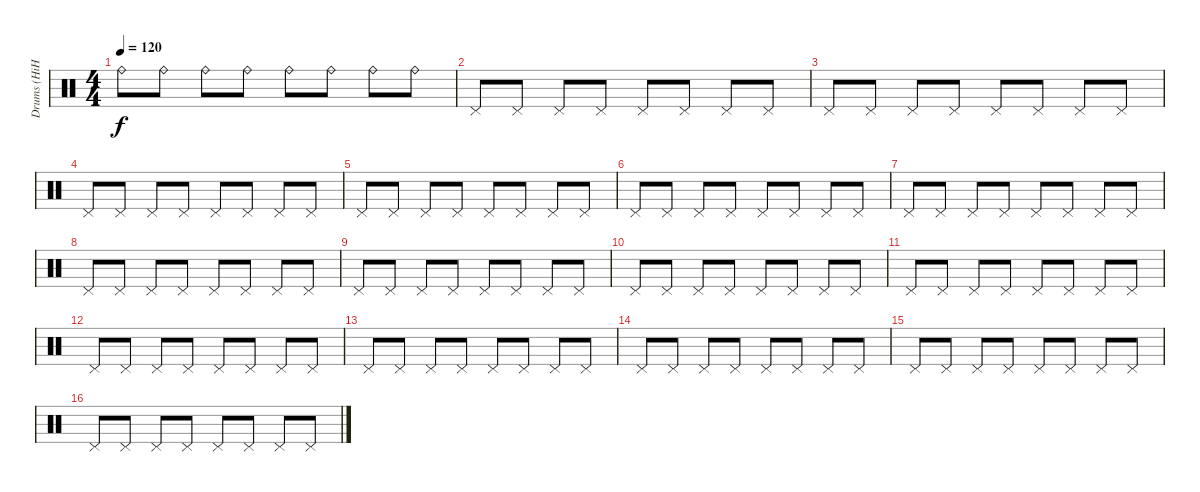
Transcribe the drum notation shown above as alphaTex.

\track ("Drums (HiHat)" "Drums (HiH") {instrument percussion}
\staff {score}
\articulation defaults
\ts (4 4)
\tempo 120
\clef neutral
\ks c "Ride (bell)".8{dy f} "Ride (bell)".8 "Ride (bell)".8 "Ride (bell)".8 "Ride (bell)".8 "Ride (bell)".8 "Ride (bell)".8 "Ride (bell)".8
|
"Pedal Hi-Hat (hit)".8 "Pedal Hi-Hat (hit)".8 "Pedal Hi-Hat (hit)".8 "Pedal Hi-Hat (hit)".8 "Pedal Hi-Hat (hit)".8 "Pedal Hi-Hat (hit)".8 "Pedal Hi-Hat (hit)".8 "Pedal Hi-Hat (hit)".8 |
"Pedal Hi-Hat (hit)".8 "Pedal Hi-Hat (hit)".8 "Pedal Hi-Hat (hit)".8 "Pedal Hi-Hat (hit)".8 "Pedal Hi-Hat (hit)".8 "Pedal Hi-Hat (hit)".8 "Pedal Hi-Hat (hit)".8 "Pedal Hi-Hat (hit)".8 |
"Pedal Hi-Hat (hit)".8 "Pedal Hi-Hat (hit)".8 "Pedal Hi-Hat (hit)".8 "Pedal Hi-Hat (hit)".8 "Pedal Hi-Hat (hit)".8 "Pedal Hi-Hat (hit)".8 "Pedal Hi-Hat (hit)".8 "Pedal Hi-Hat (hit)".8 |
"Pedal Hi-Hat (hit)".8 "Pedal Hi-Hat (hit)".8 "Pedal Hi-Hat (hit)".8 "Pedal Hi-Hat (hit)".8 "Pedal Hi-Hat (hit)".8 "Pedal Hi-Hat (hit)".8 "Pedal Hi-Hat (hit)".8 "Pedal Hi-Hat (hit)".8 |
"Pedal Hi-Hat (hit)".8 "Pedal Hi-Hat (hit)".8 "Pedal Hi-Hat (hit)".8 "Pedal Hi-Hat (hit)".8 "Pedal Hi-Hat (hit)".8 "Pedal Hi-Hat (hit)".8 "Pedal Hi-Hat (hit)".8 "Pedal Hi-Hat (hit)".8 |
"Pedal Hi-Hat (hit)".8 "Pedal Hi-Hat (hit)".8 "Pedal Hi-Hat (hit)".8 "Pedal Hi-Hat (hit)".8 "Pedal Hi-Hat (hit)".8 "Pedal Hi-Hat (hit)".8 "Pedal Hi-Hat (hit)".8 "Pedal Hi-Hat (hit)".8 |
"Pedal Hi-Hat (hit)".8 "Pedal Hi-Hat (hit)".8 "Pedal Hi-Hat (hit)".8 "Pedal Hi-Hat (hit)".8 "Pedal Hi-Hat (hit)".8 "Pedal Hi-Hat (hit)".8 "Pedal Hi-Hat (hit)".8 "Pedal Hi-Hat (hit)".8 |
"Pedal Hi-Hat (hit)".8 "Pedal Hi-Hat (hit)".8 "Pedal Hi-Hat (hit)".8 "Pedal Hi-Hat (hit)".8 "Pedal Hi-Hat (hit)".8 "Pedal Hi-Hat (hit)".8 "Pedal Hi-Hat (hit)".8 "Pedal Hi-Hat (hit)".8 |
"Pedal Hi-Hat (hit)".8 "Pedal Hi-Hat (hit)".8 "Pedal Hi-Hat (hit)".8 "Pedal Hi-Hat (hit)".8 "Pedal Hi-Hat (hit)".8 "Pedal Hi-Hat (hit)".8 "Pedal Hi-Hat (hit)".8 "Pedal Hi-Hat (hit)".8 |
"Pedal Hi-Hat (hit)".8 "Pedal Hi-Hat (hit)".8 "Pedal Hi-Hat (hit)".8 "Pedal Hi-Hat (hit)".8 "Pedal Hi-Hat (hit)".8 "Pedal Hi-Hat (hit)".8 "Pedal Hi-Hat (hit)".8 "Pedal Hi-Hat (hit)".8 |
"Pedal Hi-Hat (hit)".8 "Pedal Hi-Hat (hit)".8 "Pedal Hi-Hat (hit)".8 "Pedal Hi-Hat (hit)".8 "Pedal Hi-Hat (hit)".8 "Pedal Hi-Hat (hit)".8 "Pedal Hi-Hat (hit)".8 "Pedal Hi-Hat (hit)".8 |
"Pedal Hi-Hat (hit)".8 "Pedal Hi-Hat (hit)".8 "Pedal Hi-Hat (hit)".8 "Pedal Hi-Hat (hit)".8 "Pedal Hi-Hat (hit)".8 "Pedal Hi-Hat (hit)".8 "Pedal Hi-Hat (hit)".8 "Pedal Hi-Hat (hit)".8 |
"Pedal Hi-Hat (hit)".8 "Pedal Hi-Hat (hit)".8 "Pedal Hi-Hat (hit)".8 "Pedal Hi-Hat (hit)".8 "Pedal Hi-Hat (hit)".8 "Pedal Hi-Hat (hit)".8 "Pedal Hi-Hat (hit)".8 "Pedal Hi-Hat (hit)".8 |
"Pedal Hi-Hat (hit)".8 "Pedal Hi-Hat (hit)".8 "Pedal Hi-Hat (hit)".8 "Pedal Hi-Hat (hit)".8 "Pedal Hi-Hat (hit)".8 "Pedal Hi-Hat (hit)".8 "Pedal Hi-Hat (hit)".8 "Pedal Hi-Hat (hit)".8 |
"Pedal Hi-Hat (hit)".8 "Pedal Hi-Hat (hit)".8 "Pedal Hi-Hat (hit)".8 "Pedal Hi-Hat (hit)".8 "Pedal Hi-Hat (hit)".8 "Pedal Hi-Hat (hit)".8 "Pedal Hi-Hat (hit)".8 "Pedal Hi-Hat (hit)".8
